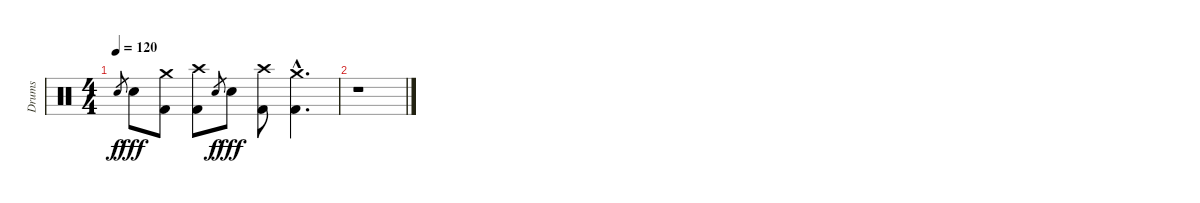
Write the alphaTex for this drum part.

\track ("Drums" "Drums") {instrument percussion}
\staff {score}
\articulation defaults
\ts (4 4)
\tempo 120
\clef neutral
\ks c "Snare (hit) 2".8{gr dy f} "Snare (hit) 2".8{dy fff}
("Crash medium (hit)" "Kick (hit) 2").8 ("Crash high (hit)" "Kick (hit) 2").8 "Snare (hit) 2".8{gr dy f} "Snare (hit) 2".8{dy fff} ("Crash high (hit)" "Kick (hit) 2").8 ("Crash medium (hit)"{hac} "Kick (hit) 2"{hac}).4{d} |
r.1
